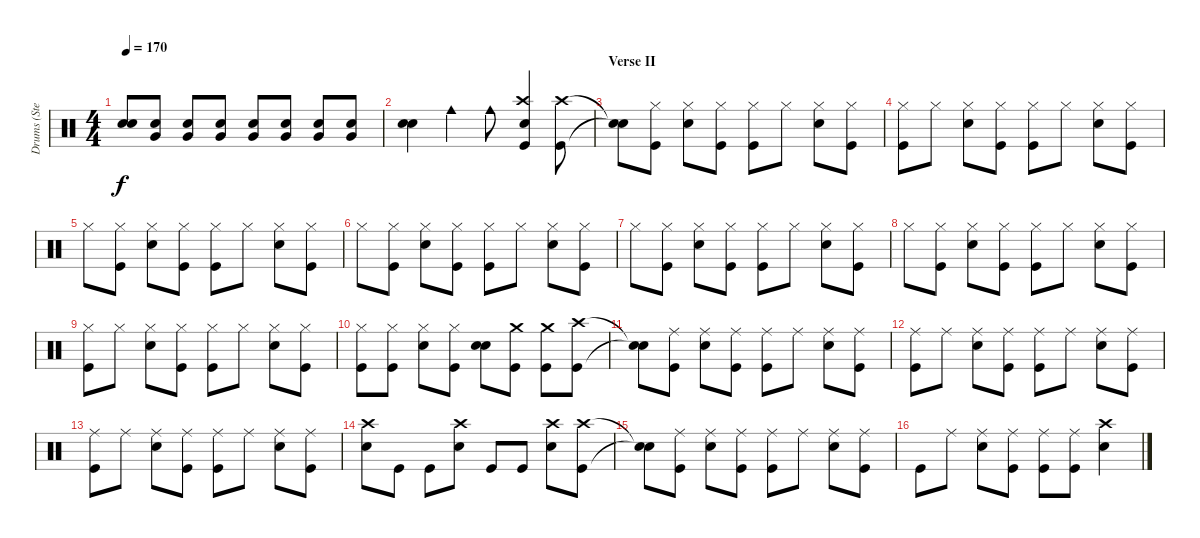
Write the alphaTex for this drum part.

\track ("Drums (Steven)" "Drums (Ste") {instrument percussion}
\staff {score}
\articulation defaults
\ts (4 4)
\tempo 170
\clef neutral
\ks c
("Snare (hit) 2" "Snare (hit) 2").8{dy f} ("Snare (hit) 2" "Very Low Tom (hit)").8 ("Snare (hit) 2" "Very Low Tom (hit)").8 ("Snare (hit) 2" "Very Low Tom (hit)").8 ("Snare (hit) 2" "Very Low Tom (hit)").8 ("Snare (hit) 2" "Very Low Tom (hit)").8 ("Snare (hit) 2" "Very Low Tom (hit)").8 ("Snare (hit) 2" "Very Low Tom (hit)").8 |
("Snare (hit) 2" "Snare (hit) 2").4 "Cowbell medium (hit)".4 "Cowbell medium (hit)".8 ("Crash high (hit)" "Kick (hit)" "Snare (hit)").4 ("Crash high (hit)" "Kick (hit)").8 |
\section ("" "Verse II")
("Snare (hit)"{t} "Snare (hit)"{t}).8 ("Hi-Hat (closed)" "Kick (hit)").8 ("Hi-Hat (closed)" "Snare (hit) 2").8 ("Hi-Hat (closed)" "Kick (hit)").8 ("Hi-Hat (closed)" "Kick (hit)").8 "Hi-Hat (closed)".8 ("Hi-Hat (closed)" "Snare (hit) 2").8 ("Hi-Hat (closed)" "Kick (hit)").8 |
("Hi-Hat (closed)" "Kick (hit)").8 "Hi-Hat (closed)".8 ("Hi-Hat (closed)" "Snare (hit) 2").8 ("Hi-Hat (closed)" "Kick (hit)").8 ("Hi-Hat (closed)" "Kick (hit)").8 "Hi-Hat (closed)".8 ("Hi-Hat (closed)" "Snare (hit) 2").8 ("Hi-Hat (closed)" "Kick (hit)").8 |
"Hi-Hat (closed)".8 ("Hi-Hat (closed)" "Kick (hit)").8 ("Hi-Hat (closed)" "Snare (hit) 2").8 ("Hi-Hat (closed)" "Kick (hit)").8 ("Hi-Hat (closed)" "Kick (hit)").8 "Hi-Hat (closed)".8 ("Hi-Hat (closed)" "Snare (hit) 2").8 ("Hi-Hat (closed)" "Kick (hit)").8 |
"Hi-Hat (closed)".8 ("Hi-Hat (closed)" "Kick (hit)").8 ("Hi-Hat (closed)" "Snare (hit) 2").8 ("Hi-Hat (closed)" "Kick (hit)").8 ("Hi-Hat (closed)" "Kick (hit)").8 "Hi-Hat (closed)".8 ("Hi-Hat (closed)" "Snare (hit) 2").8 ("Hi-Hat (closed)" "Kick (hit)").8 |
"Hi-Hat (closed)".8 ("Hi-Hat (closed)" "Kick (hit)").8 ("Hi-Hat (closed)" "Snare (hit) 2").8 ("Hi-Hat (closed)" "Kick (hit)").8 ("Hi-Hat (closed)" "Kick (hit)").8 "Hi-Hat (closed)".8 ("Hi-Hat (closed)" "Snare (hit) 2").8 ("Hi-Hat (closed)" "Kick (hit)").8 |
"Hi-Hat (closed)".8 ("Hi-Hat (closed)" "Kick (hit)").8 ("Hi-Hat (closed)" "Snare (hit) 2").8 ("Hi-Hat (closed)" "Kick (hit)").8 ("Hi-Hat (closed)" "Kick (hit)").8 "Hi-Hat (closed)".8 ("Hi-Hat (closed)" "Snare (hit) 2").8 ("Hi-Hat (closed)" "Kick (hit)").8 |
("Hi-Hat (closed)" "Kick (hit)").8 "Hi-Hat (closed)".8 ("Hi-Hat (closed)" "Snare (hit) 2").8 ("Hi-Hat (closed)" "Kick (hit)").8 ("Hi-Hat (closed)" "Kick (hit)").8 "Hi-Hat (closed)".8 ("Hi-Hat (closed)" "Snare (hit) 2").8 ("Hi-Hat (closed)" "Kick (hit)").8 |
("Hi-Hat (closed)" "Kick (hit)").8 ("Hi-Hat (closed)" "Kick (hit)").8 ("Hi-Hat (closed)" "Snare (hit) 2").8 ("Hi-Hat (closed)" "Kick (hit)").8 ("Snare (hit) 2" "Snare (hit) 2").8 ("Crash medium (hit)" "Kick (hit)").8 ("Crash medium (hit)" "Kick (hit)").8 ("Crash high (hit)" "Kick (hit)").8 |
("Snare (hit)"{t} "Snare (hit)"{t}).8 ("Ride (middle)" "Kick (hit)").8 ("Ride (middle)" "Snare (hit) 2").8 ("Ride (middle)" "Kick (hit)").8 ("Ride (middle)" "Kick (hit)").8 "Ride (middle)".8 ("Ride (middle)" "Snare (hit) 2").8 ("Ride (middle)" "Kick (hit)").8 |
("Ride (middle)" "Kick (hit)").8 "Ride (middle)".8 ("Ride (middle)" "Snare (hit) 2").8 ("Ride (middle)" "Kick (hit)").8 ("Ride (middle)" "Kick (hit)").8 "Ride (middle)".8 ("Ride (middle)" "Snare (hit) 2").8 ("Ride (middle)" "Kick (hit)").8 |
("Ride (middle)" "Kick (hit)").8 "Ride (middle)".8 ("Ride (middle)" "Snare (hit) 2").8 ("Ride (middle)" "Kick (hit)").8 ("Ride (middle)" "Kick (hit)").8 "Ride (middle)".8 ("Ride (middle)" "Snare (hit) 2").8 ("Ride (middle)" "Kick (hit)").8 |
("Crash high (hit)" "Snare (hit) 2").8 "Kick (hit)".8 "Kick (hit)".8 ("Crash high (hit)" "Snare (hit) 2").8 "Kick (hit)".8 "Kick (hit)".8 ("Crash high (hit)" "Snare (hit) 2").8 ("Crash high (hit)" "Kick (hit)").8 |
("Snare (hit)"{t} "Snare (hit)"{t}).8 ("Ride (middle)" "Kick (hit)").8 ("Ride (middle)" "Snare (hit) 2").8 ("Ride (middle)" "Kick (hit)").8 ("Ride (middle)" "Kick (hit)").8 "Ride (middle)".8 ("Ride (middle)" "Snare (hit) 2").8 ("Ride (middle)" "Kick (hit)").8 |
"Kick (hit)".8 "Ride (middle)".8 ("Ride (middle)" "Snare (hit) 2").8 ("Ride (middle)" "Kick (hit)").8 ("Ride (middle)" "Kick (hit)").8 ("Ride (middle)" "Kick (hit)").8 ("Crash high (hit)" "Snare (hit) 2").4
